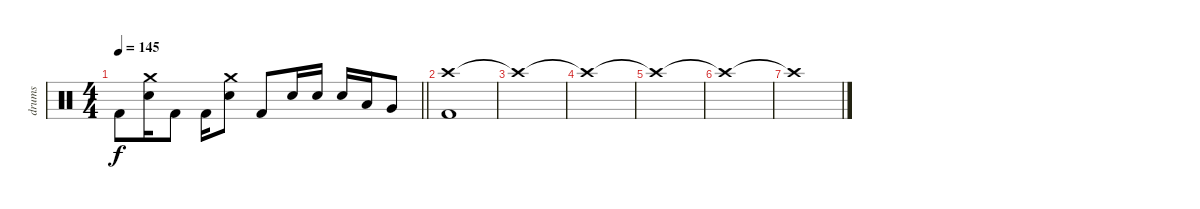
\track ("drums" "drums") {instrument percussion}
\staff {score}
\articulation defaults
\ts (4 4)
\tempo 145
\clef neutral
\barLineRight lightlight
\ks c "Kick (hit) 2".8{dy f}
("Crash medium (hit)" "Electric Snare (hit)").16 "Kick (hit) 2".8 "Kick (hit) 2".16 ("Crash medium (hit)" "Electric Snare (hit)").8 "Kick (hit) 2".8 "Electric Snare (hit)".16 "Electric Snare (hit)".16 "Electric Snare (hit)".16 "Low Tom (hit)".16 "Very Low Tom (hit)".8 |
("Crash high (hit)" "Kick (hit) 2").1 |
"Crash high (hit)"{t}.1 |
"Crash high (hit)"{t}.1 |
"Crash high (hit)"{t}.1 |
"Crash high (hit)"{t}.1 |
"Crash high (hit)"{t}.1
